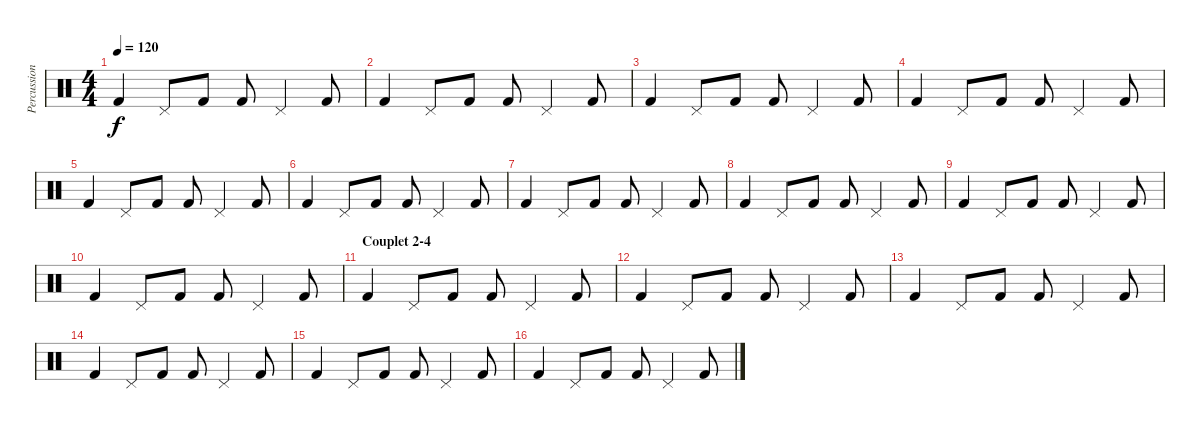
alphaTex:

\track ("Percussions" "Percussion") {instrument percussion}
\staff {score}
\articulation defaults
\ts (4 4)
\tempo 120
\clef neutral
\ks c "Kick (hit) 2".4{dy f} "Pedal Hi-Hat (hit)".8 "Kick (hit) 2".8 "Kick (hit) 2".8 "Pedal Hi-Hat (hit)".4 "Kick (hit) 2".8
|
"Kick (hit) 2".4 "Pedal Hi-Hat (hit)".8 "Kick (hit) 2".8 "Kick (hit) 2".8 "Pedal Hi-Hat (hit)".4 "Kick (hit) 2".8 |
"Kick (hit) 2".4 "Pedal Hi-Hat (hit)".8 "Kick (hit) 2".8 "Kick (hit) 2".8 "Pedal Hi-Hat (hit)".4 "Kick (hit) 2".8 |
"Kick (hit) 2".4 "Pedal Hi-Hat (hit)".8 "Kick (hit) 2".8 "Kick (hit) 2".8 "Pedal Hi-Hat (hit)".4 "Kick (hit) 2".8 |
"Kick (hit) 2".4 "Pedal Hi-Hat (hit)".8 "Kick (hit) 2".8 "Kick (hit) 2".8 "Pedal Hi-Hat (hit)".4 "Kick (hit) 2".8 |
"Kick (hit) 2".4 "Pedal Hi-Hat (hit)".8 "Kick (hit) 2".8 "Kick (hit) 2".8 "Pedal Hi-Hat (hit)".4 "Kick (hit) 2".8 |
"Kick (hit) 2".4 "Pedal Hi-Hat (hit)".8 "Kick (hit) 2".8 "Kick (hit) 2".8 "Pedal Hi-Hat (hit)".4 "Kick (hit) 2".8 |
"Kick (hit) 2".4 "Pedal Hi-Hat (hit)".8 "Kick (hit) 2".8 "Kick (hit) 2".8 "Pedal Hi-Hat (hit)".4 "Kick (hit) 2".8 |
"Kick (hit) 2".4 "Pedal Hi-Hat (hit)".8 "Kick (hit) 2".8 "Kick (hit) 2".8 "Pedal Hi-Hat (hit)".4 "Kick (hit) 2".8 |
"Kick (hit) 2".4 "Pedal Hi-Hat (hit)".8 "Kick (hit) 2".8 "Kick (hit) 2".8 "Pedal Hi-Hat (hit)".4 "Kick (hit) 2".8 |
\section ("" "Couplet 2-4")
"Kick (hit) 2".4 "Pedal Hi-Hat (hit)".8 "Kick (hit) 2".8 "Kick (hit) 2".8 "Pedal Hi-Hat (hit)".4 "Kick (hit) 2".8 |
"Kick (hit) 2".4 "Pedal Hi-Hat (hit)".8 "Kick (hit) 2".8 "Kick (hit) 2".8 "Pedal Hi-Hat (hit)".4 "Kick (hit) 2".8 |
"Kick (hit) 2".4 "Pedal Hi-Hat (hit)".8 "Kick (hit) 2".8 "Kick (hit) 2".8 "Pedal Hi-Hat (hit)".4 "Kick (hit) 2".8 |
"Kick (hit) 2".4 "Pedal Hi-Hat (hit)".8 "Kick (hit) 2".8 "Kick (hit) 2".8 "Pedal Hi-Hat (hit)".4 "Kick (hit) 2".8 |
"Kick (hit) 2".4 "Pedal Hi-Hat (hit)".8 "Kick (hit) 2".8 "Kick (hit) 2".8 "Pedal Hi-Hat (hit)".4 "Kick (hit) 2".8 |
"Kick (hit) 2".4 "Pedal Hi-Hat (hit)".8 "Kick (hit) 2".8 "Kick (hit) 2".8 "Pedal Hi-Hat (hit)".4 "Kick (hit) 2".8
